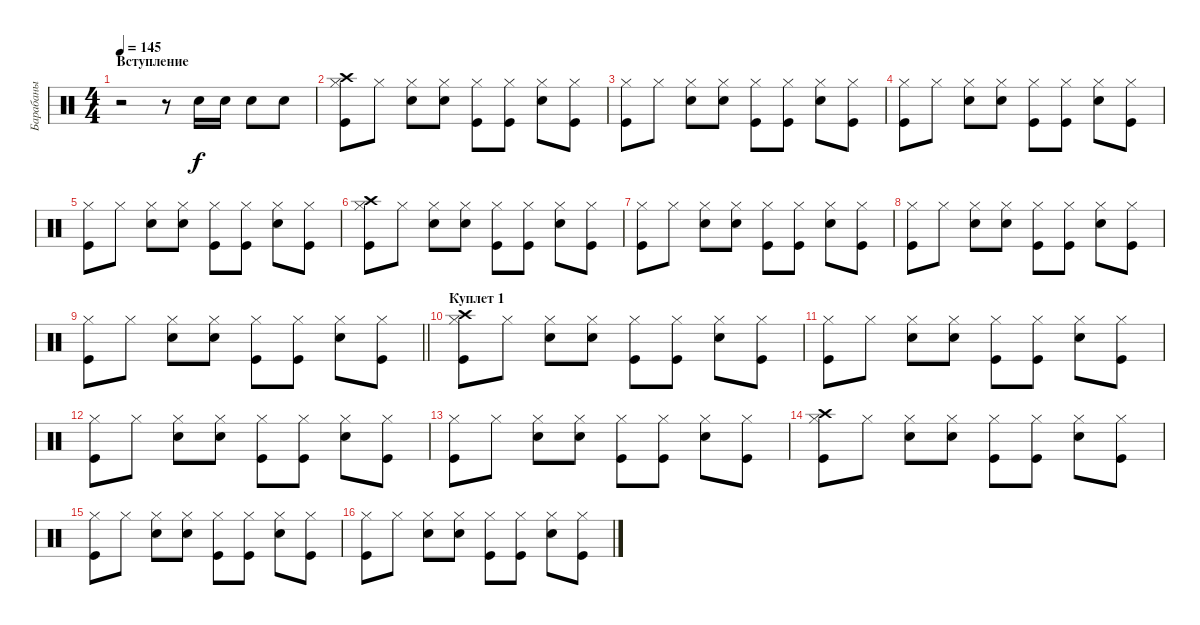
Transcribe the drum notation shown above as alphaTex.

\track ("Барабаны" "Барабаны") {instrument percussion}
\staff {score}
\articulation defaults
\ts (4 4)
\section ("" "Вступление")
\tempo 145
\clef neutral
\ks c
r.2{dy f} r.8 "Snare (hit) 2".16 "Snare (hit) 2".16 "Snare (hit) 2".8 "Snare (hit) 2".8 |
("Kick (hit)" "Hi-Hat (closed)" "Crash high (hit)").8 "Hi-Hat (closed)".8 ("Snare (hit) 2" "Hi-Hat (closed)").8 ("Snare (hit) 2" "Hi-Hat (closed)").8 ("Kick (hit)" "Hi-Hat (closed)").8 ("Kick (hit)" "Hi-Hat (closed)").8 ("Snare (hit) 2" "Hi-Hat (closed)").8 ("Kick (hit)" "Hi-Hat (closed)").8 |
("Kick (hit)" "Hi-Hat (closed)").8 "Hi-Hat (closed)".8 ("Snare (hit) 2" "Hi-Hat (closed)").8 ("Snare (hit) 2" "Hi-Hat (closed)").8 ("Kick (hit)" "Hi-Hat (closed)").8 ("Kick (hit)" "Hi-Hat (closed)").8 ("Snare (hit) 2" "Hi-Hat (closed)").8 ("Kick (hit)" "Hi-Hat (closed)").8 |
("Kick (hit)" "Hi-Hat (closed)").8 "Hi-Hat (closed)".8 ("Snare (hit) 2" "Hi-Hat (closed)").8 ("Snare (hit) 2" "Hi-Hat (closed)").8 ("Kick (hit)" "Hi-Hat (closed)").8 ("Kick (hit)" "Hi-Hat (closed)").8 ("Snare (hit) 2" "Hi-Hat (closed)").8 ("Kick (hit)" "Hi-Hat (closed)").8 |
("Kick (hit)" "Hi-Hat (closed)").8 "Hi-Hat (closed)".8 ("Snare (hit) 2" "Hi-Hat (closed)").8 ("Snare (hit) 2" "Hi-Hat (closed)").8 ("Kick (hit)" "Hi-Hat (closed)").8 ("Kick (hit)" "Hi-Hat (closed)").8 ("Snare (hit) 2" "Hi-Hat (closed)").8 ("Kick (hit)" "Hi-Hat (closed)").8 |
("Kick (hit)" "Hi-Hat (closed)" "Crash high (hit)").8 "Hi-Hat (closed)".8 ("Snare (hit) 2" "Hi-Hat (closed)").8 ("Snare (hit) 2" "Hi-Hat (closed)").8 ("Kick (hit)" "Hi-Hat (closed)").8 ("Kick (hit)" "Hi-Hat (closed)").8 ("Snare (hit) 2" "Hi-Hat (closed)").8 ("Kick (hit)" "Hi-Hat (closed)").8 |
("Kick (hit)" "Hi-Hat (closed)").8 "Hi-Hat (closed)".8 ("Snare (hit) 2" "Hi-Hat (closed)").8 ("Snare (hit) 2" "Hi-Hat (closed)").8 ("Kick (hit)" "Hi-Hat (closed)").8 ("Kick (hit)" "Hi-Hat (closed)").8 ("Snare (hit) 2" "Hi-Hat (closed)").8 ("Kick (hit)" "Hi-Hat (closed)").8 |
("Kick (hit)" "Hi-Hat (closed)").8 "Hi-Hat (closed)".8 ("Snare (hit) 2" "Hi-Hat (closed)").8 ("Snare (hit) 2" "Hi-Hat (closed)").8 ("Kick (hit)" "Hi-Hat (closed)").8 ("Kick (hit)" "Hi-Hat (closed)").8 ("Snare (hit) 2" "Hi-Hat (closed)").8 ("Kick (hit)" "Hi-Hat (closed)").8 |
\barLineRight lightlight
("Kick (hit)" "Hi-Hat (closed)").8 "Hi-Hat (closed)".8 ("Snare (hit) 2" "Hi-Hat (closed)").8 ("Snare (hit) 2" "Hi-Hat (closed)").8 ("Kick (hit)" "Hi-Hat (closed)").8 ("Kick (hit)" "Hi-Hat (closed)").8 ("Snare (hit) 2" "Hi-Hat (closed)").8 ("Kick (hit)" "Hi-Hat (closed)").8 |
\section ("" "Куплет 1")
("Kick (hit)" "Hi-Hat (closed)" "Crash high (hit)").8 "Hi-Hat (closed)".8 ("Snare (hit) 2" "Hi-Hat (closed)").8 ("Snare (hit) 2" "Hi-Hat (closed)").8 ("Kick (hit)" "Hi-Hat (closed)").8 ("Kick (hit)" "Hi-Hat (closed)").8 ("Snare (hit) 2" "Hi-Hat (closed)").8 ("Kick (hit)" "Hi-Hat (closed)").8 |
("Kick (hit)" "Hi-Hat (closed)").8 "Hi-Hat (closed)".8 ("Snare (hit) 2" "Hi-Hat (closed)").8 ("Snare (hit) 2" "Hi-Hat (closed)").8 ("Kick (hit)" "Hi-Hat (closed)").8 ("Kick (hit)" "Hi-Hat (closed)").8 ("Snare (hit) 2" "Hi-Hat (closed)").8 ("Kick (hit)" "Hi-Hat (closed)").8 |
("Kick (hit)" "Hi-Hat (closed)").8 "Hi-Hat (closed)".8 ("Snare (hit) 2" "Hi-Hat (closed)").8 ("Snare (hit) 2" "Hi-Hat (closed)").8 ("Kick (hit)" "Hi-Hat (closed)").8 ("Kick (hit)" "Hi-Hat (closed)").8 ("Snare (hit) 2" "Hi-Hat (closed)").8 ("Kick (hit)" "Hi-Hat (closed)").8 |
("Kick (hit)" "Hi-Hat (closed)").8 "Hi-Hat (closed)".8 ("Snare (hit) 2" "Hi-Hat (closed)").8 ("Snare (hit) 2" "Hi-Hat (closed)").8 ("Kick (hit)" "Hi-Hat (closed)").8 ("Kick (hit)" "Hi-Hat (closed)").8 ("Snare (hit) 2" "Hi-Hat (closed)").8 ("Kick (hit)" "Hi-Hat (closed)").8 |
("Kick (hit)" "Hi-Hat (closed)" "Crash high (hit)").8 "Hi-Hat (closed)".8 ("Snare (hit) 2" "Hi-Hat (closed)").8 ("Snare (hit) 2" "Hi-Hat (closed)").8 ("Kick (hit)" "Hi-Hat (closed)").8 ("Kick (hit)" "Hi-Hat (closed)").8 ("Snare (hit) 2" "Hi-Hat (closed)").8 ("Kick (hit)" "Hi-Hat (closed)").8 |
("Kick (hit)" "Hi-Hat (closed)").8 "Hi-Hat (closed)".8 ("Snare (hit) 2" "Hi-Hat (closed)").8 ("Snare (hit) 2" "Hi-Hat (closed)").8 ("Kick (hit)" "Hi-Hat (closed)").8 ("Kick (hit)" "Hi-Hat (closed)").8 ("Snare (hit) 2" "Hi-Hat (closed)").8 ("Kick (hit)" "Hi-Hat (closed)").8 |
("Kick (hit)" "Hi-Hat (closed)").8 "Hi-Hat (closed)".8 ("Snare (hit) 2" "Hi-Hat (closed)").8 ("Snare (hit) 2" "Hi-Hat (closed)").8 ("Kick (hit)" "Hi-Hat (closed)").8 ("Kick (hit)" "Hi-Hat (closed)").8 ("Snare (hit) 2" "Hi-Hat (closed)").8 ("Kick (hit)" "Hi-Hat (closed)").8
